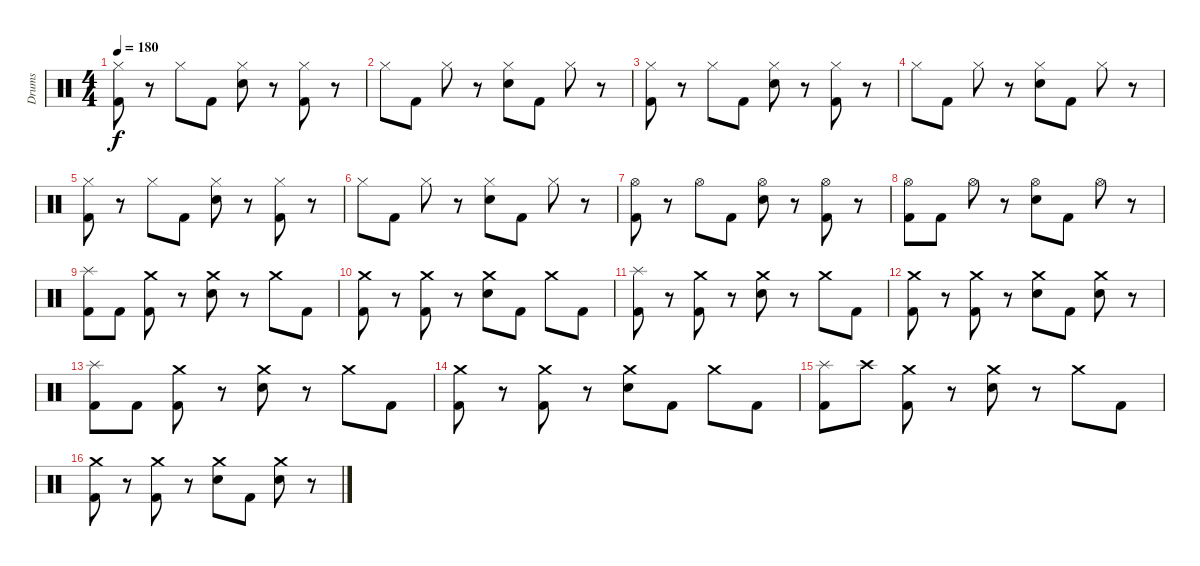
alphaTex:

\track ("Drums" "Drums") {instrument percussion}
\staff {score}
\articulation defaults
\ts (4 4)
\tempo 180
\clef neutral
\ks c
("Hi-Hat (closed)" "Kick (hit) 2").8{dy f} r.8 "Hi-Hat (closed)".8 "Kick (hit) 2".8 ("Hi-Hat (closed)" "Snare (hit) 2").8 r.8 ("Hi-Hat (closed)" "Kick (hit) 2").8 r.8 |
"Hi-Hat (closed)".8 "Kick (hit) 2".8 "Hi-Hat (closed)".8 r.8 ("Hi-Hat (closed)" "Snare (hit) 2").8 "Kick (hit) 2".8 "Hi-Hat (closed)".8 r.8 |
("Hi-Hat (closed)" "Kick (hit) 2").8 r.8 "Hi-Hat (closed)".8 "Kick (hit) 2".8 ("Hi-Hat (closed)" "Snare (hit) 2").8 r.8 ("Hi-Hat (closed)" "Kick (hit) 2").8 r.8 |
"Hi-Hat (closed)".8 "Kick (hit) 2".8 "Hi-Hat (closed)".8 r.8 ("Hi-Hat (closed)" "Snare (hit) 2").8 "Kick (hit) 2".8 "Hi-Hat (closed)".8 r.8 |
("Hi-Hat (closed)" "Kick (hit) 2").8 r.8 "Hi-Hat (closed)".8 "Kick (hit) 2".8 ("Hi-Hat (closed)" "Snare (hit) 2").8 r.8 ("Hi-Hat (closed)" "Kick (hit) 2").8 r.8 |
"Hi-Hat (closed)".8 "Kick (hit) 2".8 "Hi-Hat (closed)".8 r.8 ("Hi-Hat (closed)" "Snare (hit) 2").8 "Kick (hit) 2".8 "Hi-Hat (closed)".8 r.8 |
("Hi-Hat (open)" "Kick (hit) 2").8 r.8 "Hi-Hat (open)".8 "Kick (hit) 2".8 ("Hi-Hat (open)" "Snare (hit) 2").8 r.8 ("Hi-Hat (open)" "Kick (hit) 2").8 r.8 |
("Hi-Hat (open)" "Kick (hit) 2").8 "Kick (hit) 2".8 "Hi-Hat (open)".8 r.8 ("Hi-Hat (open)" "Snare (hit) 2").8 "Kick (hit) 2".8 "Hi-Hat (open)".8 r.8 |
("Splash (hit)" "Kick (hit) 2").8 "Kick (hit) 2".8 ("Crash medium (hit)" "Kick (hit) 2").8 r.8 ("Crash medium (hit)" "Snare (hit) 2").8 r.8 "Crash medium (hit)".8 "Kick (hit) 2".8 |
("Crash medium (hit)" "Kick (hit) 2").8 r.8 ("Crash medium (hit)" "Kick (hit) 2").8 r.8 ("Crash medium (hit)" "Snare (hit) 2").8 "Kick (hit) 2".8 "Crash medium (hit)".8 "Kick (hit) 2".8 |
("Splash (hit)" "Kick (hit) 2").8 r.8 ("Crash medium (hit)" "Kick (hit) 2").8 r.8 ("Crash medium (hit)" "Snare (hit) 2").8 r.8 "Crash medium (hit)".8 "Kick (hit) 2".8 |
("Crash medium (hit)" "Kick (hit) 2").8 r.8 ("Crash medium (hit)" "Kick (hit) 2").8 r.8 ("Crash medium (hit)" "Snare (hit) 2").8 "Kick (hit) 2".8 ("Crash medium (hit)" "Snare (hit) 2").8 r.8 |
("Splash (hit)" "Kick (hit) 2").8 "Kick (hit) 2".8 ("Crash medium (hit)" "Kick (hit) 2").8 r.8 ("Crash medium (hit)" "Snare (hit) 2").8 r.8 "Crash medium (hit)".8 "Kick (hit) 2".8 |
("Crash medium (hit)" "Kick (hit) 2").8 r.8 ("Crash medium (hit)" "Kick (hit) 2").8 r.8 ("Crash medium (hit)" "Snare (hit) 2").8 "Kick (hit) 2".8 "Crash medium (hit)".8 "Kick (hit) 2".8 |
("Splash (hit)" "Kick (hit) 2").8 "Crash high (hit)".8 ("Crash medium (hit)" "Kick (hit) 2").8 r.8 ("Crash medium (hit)" "Snare (hit) 2").8 r.8 "Crash medium (hit)".8 "Kick (hit) 2".8 |
("Crash medium (hit)" "Kick (hit) 2").8 r.8 ("Crash medium (hit)" "Kick (hit) 2").8 r.8 ("Crash medium (hit)" "Snare (hit) 2").8 "Kick (hit) 2".8 ("Crash medium (hit)" "Snare (hit) 2").8 r.8
